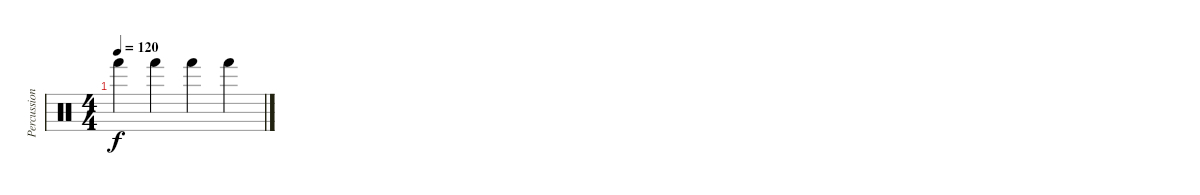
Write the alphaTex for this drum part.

\track ("Percussions" "Percussion") {instrument percussion}
\staff {score}
\articulation defaults
\ts (4 4)
\tempo 120
\clef neutral
\ks c "Hand (hit)".4{dy f} "Hand (hit)".4 "Hand (hit)".4 "Hand (hit)".4
